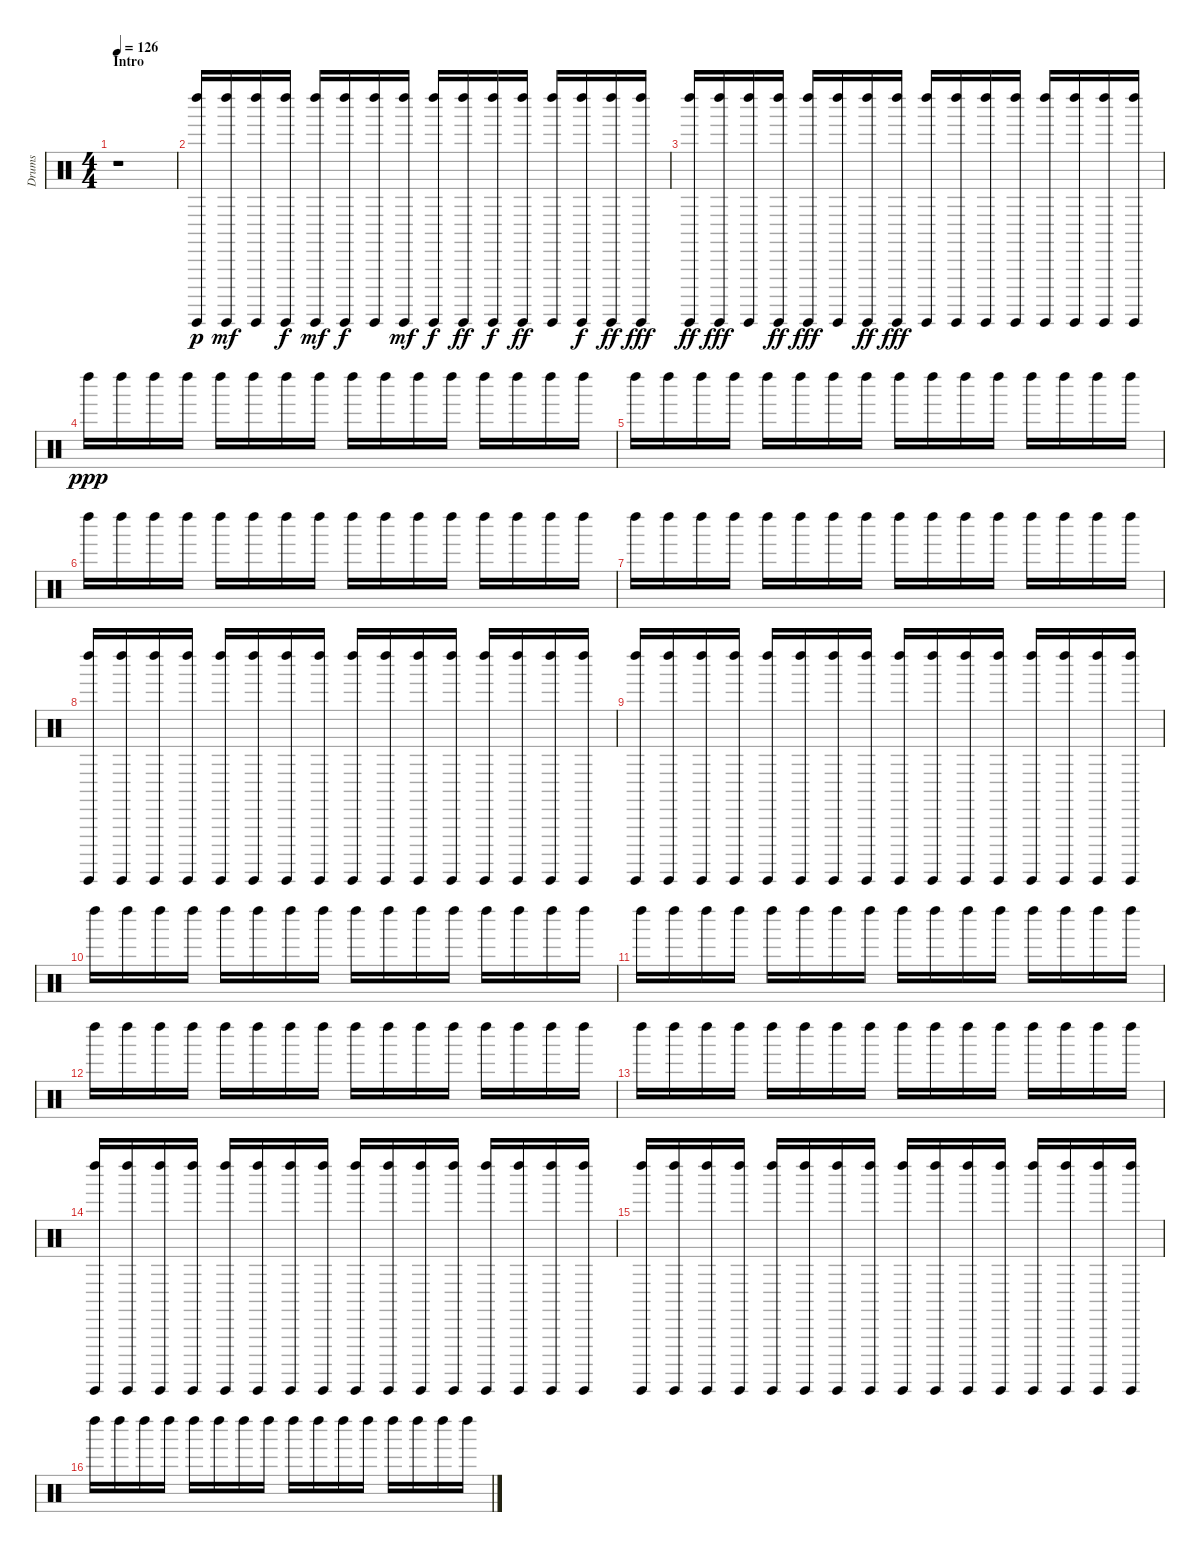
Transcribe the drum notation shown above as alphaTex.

\track ("Drums" "Drums") {instrument percussion}
\staff {score}
\articulation defaults
\ts (4 4)
\section ("" "Intro")
\tempo 126
\clef neutral
\ks c
r.1{dy p} |
("Left Maraca (hit)" "Guiro (hit)").16 ("Left Maraca (hit)" "Guiro (hit)").16{dy mf} ("Left Maraca (hit)" "Guiro (hit)").16 ("Left Maraca (hit)" "Guiro (hit)").16{dy f} ("Left Maraca (hit)" "Guiro (hit)").16{dy mf} ("Left Maraca (hit)" "Guiro (hit)").16{dy f} ("Left Maraca (hit)" "Guiro (hit)").16 ("Left Maraca (hit)" "Guiro (hit)").16{dy mf} ("Left Maraca (hit)" "Guiro (hit)").16{dy f} ("Left Maraca (hit)" "Guiro (hit)").16{dy ff} ("Left Maraca (hit)" "Guiro (hit)").16{dy f} ("Left Maraca (hit)" "Guiro (hit)").16{dy ff} ("Left Maraca (hit)" "Guiro (hit)").16 ("Left Maraca (hit)" "Guiro (hit)").16{dy f} ("Left Maraca (hit)" "Guiro (hit)").16{dy ff} ("Left Maraca (hit)" "Guiro (hit)").16{dy fff} |
("Left Maraca (hit)" "Guiro (hit)").16{dy ff} ("Left Maraca (hit)" "Guiro (hit)").16{dy fff} ("Left Maraca (hit)" "Guiro (hit)").16 ("Left Maraca (hit)" "Guiro (hit)").16{dy ff} ("Left Maraca (hit)" "Guiro (hit)").16{dy fff} ("Left Maraca (hit)" "Guiro (hit)").16 ("Left Maraca (hit)" "Guiro (hit)").16{dy ff} ("Left Maraca (hit)" "Guiro (hit)").16{dy fff} ("Left Maraca (hit)" "Guiro (hit)").16 ("Left Maraca (hit)" "Guiro (hit)").16 ("Left Maraca (hit)" "Guiro (hit)").16 ("Left Maraca (hit)" "Guiro (hit)").16 ("Left Maraca (hit)" "Guiro (hit)").16 ("Left Maraca (hit)" "Guiro (hit)").16 ("Left Maraca (hit)" "Guiro (hit)").16 ("Left Maraca (hit)" "Guiro (hit)").16 |
"Left Maraca (hit)".16{dy ppp} "Left Maraca (hit)".16 "Left Maraca (hit)".16 "Left Maraca (hit)".16 "Left Maraca (hit)".16 "Left Maraca (hit)".16 "Left Maraca (hit)".16 "Left Maraca (hit)".16 "Left Maraca (hit)".16 "Left Maraca (hit)".16 "Left Maraca (hit)".16 "Left Maraca (hit)".16 "Left Maraca (hit)".16 "Left Maraca (hit)".16 "Left Maraca (hit)".16 "Left Maraca (hit)".16 |
"Left Maraca (hit)".16 "Left Maraca (hit)".16 "Left Maraca (hit)".16 "Left Maraca (hit)".16 "Left Maraca (hit)".16 "Left Maraca (hit)".16 "Left Maraca (hit)".16 "Left Maraca (hit)".16 "Left Maraca (hit)".16 "Left Maraca (hit)".16 "Left Maraca (hit)".16 "Left Maraca (hit)".16 "Left Maraca (hit)".16 "Left Maraca (hit)".16 "Left Maraca (hit)".16 "Left Maraca (hit)".16 |
"Left Maraca (hit)".16 "Left Maraca (hit)".16 "Left Maraca (hit)".16 "Left Maraca (hit)".16 "Left Maraca (hit)".16 "Left Maraca (hit)".16 "Left Maraca (hit)".16 "Left Maraca (hit)".16 "Left Maraca (hit)".16 "Left Maraca (hit)".16 "Left Maraca (hit)".16 "Left Maraca (hit)".16 "Left Maraca (hit)".16 "Left Maraca (hit)".16 "Left Maraca (hit)".16 "Left Maraca (hit)".16 |
"Left Maraca (hit)".16 "Left Maraca (hit)".16 "Left Maraca (hit)".16 "Left Maraca (hit)".16 "Left Maraca (hit)".16 "Left Maraca (hit)".16 "Left Maraca (hit)".16 "Left Maraca (hit)".16 "Left Maraca (hit)".16 "Left Maraca (hit)".16 "Left Maraca (hit)".16 "Left Maraca (hit)".16 "Left Maraca (hit)".16 "Left Maraca (hit)".16 "Left Maraca (hit)".16 "Left Maraca (hit)".16 |
("Left Maraca (hit)" "Guiro (hit)").16 ("Left Maraca (hit)" "Guiro (hit)").16 ("Left Maraca (hit)" "Guiro (hit)").16 ("Left Maraca (hit)" "Guiro (hit)").16 ("Left Maraca (hit)" "Guiro (hit)").16 ("Left Maraca (hit)" "Guiro (hit)").16 ("Left Maraca (hit)" "Guiro (hit)").16 ("Left Maraca (hit)" "Guiro (hit)").16 ("Left Maraca (hit)" "Guiro (hit)").16 ("Left Maraca (hit)" "Guiro (hit)").16 ("Left Maraca (hit)" "Guiro (hit)").16 ("Left Maraca (hit)" "Guiro (hit)").16 ("Left Maraca (hit)" "Guiro (hit)").16 ("Left Maraca (hit)" "Guiro (hit)").16 ("Left Maraca (hit)" "Guiro (hit)").16 ("Left Maraca (hit)" "Guiro (hit)").16 |
("Left Maraca (hit)" "Guiro (hit)").16 ("Left Maraca (hit)" "Guiro (hit)").16 ("Left Maraca (hit)" "Guiro (hit)").16 ("Left Maraca (hit)" "Guiro (hit)").16 ("Left Maraca (hit)" "Guiro (hit)").16 ("Left Maraca (hit)" "Guiro (hit)").16 ("Left Maraca (hit)" "Guiro (hit)").16 ("Left Maraca (hit)" "Guiro (hit)").16 ("Left Maraca (hit)" "Guiro (hit)").16 ("Left Maraca (hit)" "Guiro (hit)").16 ("Left Maraca (hit)" "Guiro (hit)").16 ("Left Maraca (hit)" "Guiro (hit)").16 ("Left Maraca (hit)" "Guiro (hit)").16 ("Left Maraca (hit)" "Guiro (hit)").16 ("Left Maraca (hit)" "Guiro (hit)").16 ("Left Maraca (hit)" "Guiro (hit)").16 |
"Left Maraca (hit)".16 "Left Maraca (hit)".16 "Left Maraca (hit)".16 "Left Maraca (hit)".16 "Left Maraca (hit)".16 "Left Maraca (hit)".16 "Left Maraca (hit)".16 "Left Maraca (hit)".16 "Left Maraca (hit)".16 "Left Maraca (hit)".16 "Left Maraca (hit)".16 "Left Maraca (hit)".16 "Left Maraca (hit)".16 "Left Maraca (hit)".16 "Left Maraca (hit)".16 "Left Maraca (hit)".16 |
"Left Maraca (hit)".16 "Left Maraca (hit)".16 "Left Maraca (hit)".16 "Left Maraca (hit)".16 "Left Maraca (hit)".16 "Left Maraca (hit)".16 "Left Maraca (hit)".16 "Left Maraca (hit)".16 "Left Maraca (hit)".16 "Left Maraca (hit)".16 "Left Maraca (hit)".16 "Left Maraca (hit)".16 "Left Maraca (hit)".16 "Left Maraca (hit)".16 "Left Maraca (hit)".16 "Left Maraca (hit)".16 |
"Left Maraca (hit)".16 "Left Maraca (hit)".16 "Left Maraca (hit)".16 "Left Maraca (hit)".16 "Left Maraca (hit)".16 "Left Maraca (hit)".16 "Left Maraca (hit)".16 "Left Maraca (hit)".16 "Left Maraca (hit)".16 "Left Maraca (hit)".16 "Left Maraca (hit)".16 "Left Maraca (hit)".16 "Left Maraca (hit)".16 "Left Maraca (hit)".16 "Left Maraca (hit)".16 "Left Maraca (hit)".16 |
"Left Maraca (hit)".16 "Left Maraca (hit)".16 "Left Maraca (hit)".16 "Left Maraca (hit)".16 "Left Maraca (hit)".16 "Left Maraca (hit)".16 "Left Maraca (hit)".16 "Left Maraca (hit)".16 "Left Maraca (hit)".16 "Left Maraca (hit)".16 "Left Maraca (hit)".16 "Left Maraca (hit)".16 "Left Maraca (hit)".16 "Left Maraca (hit)".16 "Left Maraca (hit)".16 "Left Maraca (hit)".16 |
("Left Maraca (hit)" "Guiro (hit)").16 ("Left Maraca (hit)" "Guiro (hit)").16 ("Left Maraca (hit)" "Guiro (hit)").16 ("Left Maraca (hit)" "Guiro (hit)").16 ("Left Maraca (hit)" "Guiro (hit)").16 ("Left Maraca (hit)" "Guiro (hit)").16 ("Left Maraca (hit)" "Guiro (hit)").16 ("Left Maraca (hit)" "Guiro (hit)").16 ("Left Maraca (hit)" "Guiro (hit)").16 ("Left Maraca (hit)" "Guiro (hit)").16 ("Left Maraca (hit)" "Guiro (hit)").16 ("Left Maraca (hit)" "Guiro (hit)").16 ("Left Maraca (hit)" "Guiro (hit)").16 ("Left Maraca (hit)" "Guiro (hit)").16 ("Left Maraca (hit)" "Guiro (hit)").16 ("Left Maraca (hit)" "Guiro (hit)").16 |
("Left Maraca (hit)" "Guiro (hit)").16 ("Left Maraca (hit)" "Guiro (hit)").16 ("Left Maraca (hit)" "Guiro (hit)").16 ("Left Maraca (hit)" "Guiro (hit)").16 ("Left Maraca (hit)" "Guiro (hit)").16 ("Left Maraca (hit)" "Guiro (hit)").16 ("Left Maraca (hit)" "Guiro (hit)").16 ("Left Maraca (hit)" "Guiro (hit)").16 ("Left Maraca (hit)" "Guiro (hit)").16 ("Left Maraca (hit)" "Guiro (hit)").16 ("Left Maraca (hit)" "Guiro (hit)").16 ("Left Maraca (hit)" "Guiro (hit)").16 ("Left Maraca (hit)" "Guiro (hit)").16 ("Left Maraca (hit)" "Guiro (hit)").16 ("Left Maraca (hit)" "Guiro (hit)").16 ("Left Maraca (hit)" "Guiro (hit)").16 |
"Left Maraca (hit)".16 "Left Maraca (hit)".16 "Left Maraca (hit)".16 "Left Maraca (hit)".16 "Left Maraca (hit)".16 "Left Maraca (hit)".16 "Left Maraca (hit)".16 "Left Maraca (hit)".16 "Left Maraca (hit)".16 "Left Maraca (hit)".16 "Left Maraca (hit)".16 "Left Maraca (hit)".16 "Left Maraca (hit)".16 "Left Maraca (hit)".16 "Left Maraca (hit)".16 "Left Maraca (hit)".16
